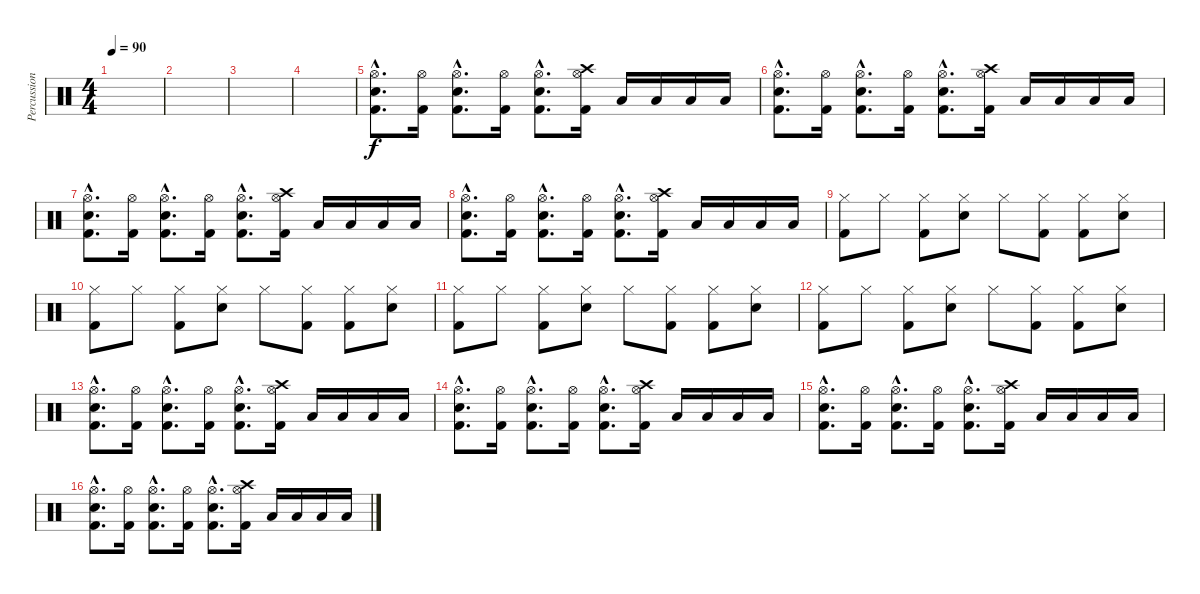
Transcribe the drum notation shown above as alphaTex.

\track ("Percussion" "Percussion") {instrument percussion}
\staff {score}
\articulation defaults
\ts (4 4)
\tempo 90
\clef neutral
\ks c
|
|
|
|
("Hi-Hat (open)"{hac} "Electric Snare (hit)"{hac} "Kick (hit) 2"{hac}).8{d} ("Hi-Hat (open)" "Kick (hit) 2").16 ("Hi-Hat (open)"{hac} "Electric Snare (hit)"{hac} "Kick (hit) 2"{hac}).8{d} ("Hi-Hat (open)" "Kick (hit) 2").16 ("Hi-Hat (open)"{hac} "Electric Snare (hit)"{hac} "Kick (hit) 2"{hac}).8{d} ("Hi-Hat (open)" "Crash high (hit)" "Kick (hit) 2").16 "Low Tom (hit)".16 "Low Tom (hit)".16 "Low Tom (hit)".16 "Low Tom (hit)".16 |
("Hi-Hat (open)"{hac} "Electric Snare (hit)"{hac} "Kick (hit) 2"{hac}).8{d} ("Hi-Hat (open)" "Kick (hit) 2").16 ("Hi-Hat (open)"{hac} "Electric Snare (hit)"{hac} "Kick (hit) 2"{hac}).8{d} ("Hi-Hat (open)" "Kick (hit) 2").16 ("Hi-Hat (open)"{hac} "Electric Snare (hit)"{hac} "Kick (hit) 2"{hac}).8{d} ("Hi-Hat (open)" "Crash high (hit)" "Kick (hit) 2").16 "Low Tom (hit)".16 "Low Tom (hit)".16 "Low Tom (hit)".16 "Low Tom (hit)".16 |
("Hi-Hat (open)"{hac} "Electric Snare (hit)"{hac} "Kick (hit) 2"{hac}).8{d} ("Hi-Hat (open)" "Kick (hit) 2").16 ("Hi-Hat (open)"{hac} "Electric Snare (hit)"{hac} "Kick (hit) 2"{hac}).8{d} ("Hi-Hat (open)" "Kick (hit) 2").16 ("Hi-Hat (open)"{hac} "Electric Snare (hit)"{hac} "Kick (hit) 2"{hac}).8{d} ("Hi-Hat (open)" "Crash high (hit)" "Kick (hit) 2").16 "Low Tom (hit)".16 "Low Tom (hit)".16 "Low Tom (hit)".16 "Low Tom (hit)".16 |
("Hi-Hat (open)"{hac} "Electric Snare (hit)"{hac} "Kick (hit) 2"{hac}).8{d} ("Hi-Hat (open)" "Kick (hit) 2").16 ("Hi-Hat (open)"{hac} "Electric Snare (hit)"{hac} "Kick (hit) 2"{hac}).8{d} ("Hi-Hat (open)" "Kick (hit) 2").16 ("Hi-Hat (open)"{hac} "Electric Snare (hit)"{hac} "Kick (hit) 2"{hac}).8{d} ("Hi-Hat (open)" "Crash high (hit)" "Kick (hit) 2").16 "Low Tom (hit)".16 "Low Tom (hit)".16 "Low Tom (hit)".16 "Low Tom (hit)".16 |
("Hi-Hat (closed)" "Kick (hit) 2").8 "Hi-Hat (closed)".8 ("Hi-Hat (closed)" "Kick (hit) 2").8 ("Hi-Hat (closed)" "Electric Snare (hit)").8 "Hi-Hat (closed)".8 ("Hi-Hat (closed)" "Kick (hit) 2").8 ("Hi-Hat (closed)" "Kick (hit) 2").8 ("Hi-Hat (closed)" "Electric Snare (hit)").8 |
("Hi-Hat (closed)" "Kick (hit) 2").8 "Hi-Hat (closed)".8 ("Hi-Hat (closed)" "Kick (hit) 2").8 ("Hi-Hat (closed)" "Electric Snare (hit)").8 "Hi-Hat (closed)".8 ("Hi-Hat (closed)" "Kick (hit) 2").8 ("Hi-Hat (closed)" "Kick (hit) 2").8 ("Hi-Hat (closed)" "Electric Snare (hit)").8 |
("Hi-Hat (closed)" "Kick (hit) 2").8 "Hi-Hat (closed)".8 ("Hi-Hat (closed)" "Kick (hit) 2").8 ("Hi-Hat (closed)" "Electric Snare (hit)").8 "Hi-Hat (closed)".8 ("Hi-Hat (closed)" "Kick (hit) 2").8 ("Hi-Hat (closed)" "Kick (hit) 2").8 ("Hi-Hat (closed)" "Electric Snare (hit)").8 |
("Hi-Hat (closed)" "Kick (hit) 2").8 "Hi-Hat (closed)".8 ("Hi-Hat (closed)" "Kick (hit) 2").8 ("Hi-Hat (closed)" "Electric Snare (hit)").8 "Hi-Hat (closed)".8 ("Hi-Hat (closed)" "Kick (hit) 2").8 ("Hi-Hat (closed)" "Kick (hit) 2").8 ("Hi-Hat (closed)" "Electric Snare (hit)").8 |
("Hi-Hat (open)"{hac} "Electric Snare (hit)"{hac} "Kick (hit) 2"{hac}).8{d} ("Hi-Hat (open)" "Kick (hit) 2").16 ("Hi-Hat (open)"{hac} "Electric Snare (hit)"{hac} "Kick (hit) 2"{hac}).8{d} ("Hi-Hat (open)" "Kick (hit) 2").16 ("Hi-Hat (open)"{hac} "Electric Snare (hit)"{hac} "Kick (hit) 2"{hac}).8{d} ("Hi-Hat (open)" "Crash high (hit)" "Kick (hit) 2").16 "Low Tom (hit)".16 "Low Tom (hit)".16 "Low Tom (hit)".16 "Low Tom (hit)".16 |
("Hi-Hat (open)"{hac} "Electric Snare (hit)"{hac} "Kick (hit) 2"{hac}).8{d} ("Hi-Hat (open)" "Kick (hit) 2").16 ("Hi-Hat (open)"{hac} "Electric Snare (hit)"{hac} "Kick (hit) 2"{hac}).8{d} ("Hi-Hat (open)" "Kick (hit) 2").16 ("Hi-Hat (open)"{hac} "Electric Snare (hit)"{hac} "Kick (hit) 2"{hac}).8{d} ("Hi-Hat (open)" "Crash high (hit)" "Kick (hit) 2").16 "Low Tom (hit)".16 "Low Tom (hit)".16 "Low Tom (hit)".16 "Low Tom (hit)".16 |
("Hi-Hat (open)"{hac} "Electric Snare (hit)"{hac} "Kick (hit) 2"{hac}).8{d} ("Hi-Hat (open)" "Kick (hit) 2").16 ("Hi-Hat (open)"{hac} "Electric Snare (hit)"{hac} "Kick (hit) 2"{hac}).8{d} ("Hi-Hat (open)" "Kick (hit) 2").16 ("Hi-Hat (open)"{hac} "Electric Snare (hit)"{hac} "Kick (hit) 2"{hac}).8{d} ("Hi-Hat (open)" "Crash high (hit)" "Kick (hit) 2").16 "Low Tom (hit)".16 "Low Tom (hit)".16 "Low Tom (hit)".16 "Low Tom (hit)".16 |
("Hi-Hat (open)"{hac} "Electric Snare (hit)"{hac} "Kick (hit) 2"{hac}).8{d} ("Hi-Hat (open)" "Kick (hit) 2").16 ("Hi-Hat (open)"{hac} "Electric Snare (hit)"{hac} "Kick (hit) 2"{hac}).8{d} ("Hi-Hat (open)" "Kick (hit) 2").16 ("Hi-Hat (open)"{hac} "Electric Snare (hit)"{hac} "Kick (hit) 2"{hac}).8{d} ("Hi-Hat (open)" "Crash high (hit)" "Kick (hit) 2").16 "Low Tom (hit)".16 "Low Tom (hit)".16 "Low Tom (hit)".16 "Low Tom (hit)".16
